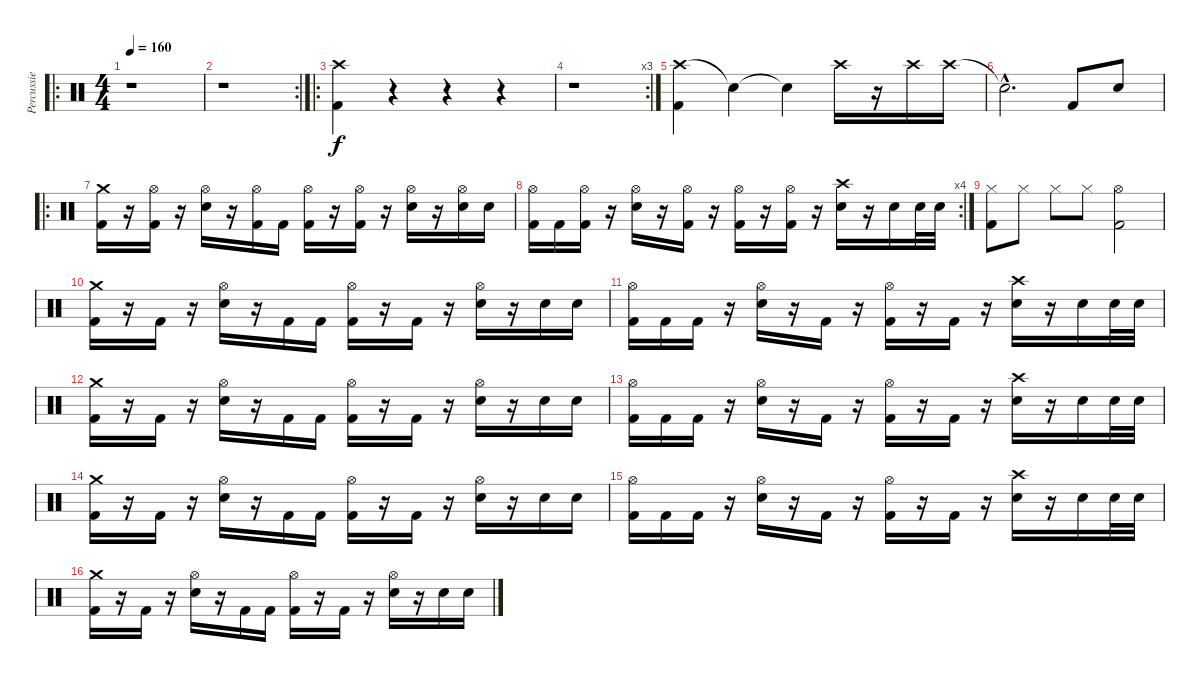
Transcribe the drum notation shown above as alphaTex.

\track ("Percussie" "Percussie") {instrument percussion}
\staff {score}
\articulation defaults
\ro
\ts (4 4)
\tempo 160
\clef neutral
\ks c
r.1{dy f} |
\rc 2
r.1 |
\ro
("Crash high (hit)" "Kick (hit) 2").4 r.4 r.4 r.4 |
\rc 3
r.1 |
("Crash high (hit)" "Kick (hit) 2").4 "Snare (hit)"{t}.4 "Snare (hit)"{t}.4 "Crash high (hit)".16 r.16 "Crash high (hit)".16 "Crash high (hit)".16 |
"Snare (hit)"{hac t}.2{d} "Kick (hit) 2".8 "Electric Snare (hit)".8 |
\ro
("Crash medium (hit)" "Kick (hit) 2").16 r.16 ("Hi-Hat (open)" "Kick (hit) 2").16 r.16 ("Hi-Hat (open)" "Electric Snare (hit)").16 r.16 ("Hi-Hat (open)" "Kick (hit) 2").16 "Kick (hit) 2".16 ("Hi-Hat (open)" "Kick (hit) 2").16 r.16 ("Hi-Hat (open)" "Kick (hit) 2").16 r.16 ("Hi-Hat (open)" "Electric Snare (hit)").16 r.16 ("Hi-Hat (open)" "Electric Snare (hit)").16 "Electric Snare (hit)".16 |
\rc 4
("Hi-Hat (open)" "Kick (hit) 2").16 "Kick (hit) 2".16 ("Hi-Hat (open)" "Kick (hit) 2").16 r.16 ("Hi-Hat (open)" "Electric Snare (hit)").16 r.16 ("Hi-Hat (open)" "Kick (hit) 2").16 r.16 ("Hi-Hat (open)" "Kick (hit) 2").16 r.16 ("Hi-Hat (open)" "Kick (hit) 2").16 r.16 ("Crash high (hit)" "Electric Snare (hit)").16 r.16 "Electric Snare (hit)".16 "Electric Snare (hit)".32 "Electric Snare (hit)".32 |
("Hi-Hat (closed)" "Kick (hit) 2").8 "Hi-Hat (closed)".8 "Hi-Hat (closed)".8 "Hi-Hat (closed)".8 ("Hi-Hat (open)" "Kick (hit) 2").2 |
("Crash medium (hit)" "Kick (hit) 2").16 r.16 "Kick (hit) 2".16 r.16 ("Hi-Hat (open)" "Electric Snare (hit)").16 r.16 "Kick (hit) 2".16 "Kick (hit) 2".16 ("Hi-Hat (open)" "Kick (hit) 2").16 r.16 "Kick (hit) 2".16 r.16 ("Hi-Hat (open)" "Electric Snare (hit)").16 r.16 "Electric Snare (hit)".16 "Electric Snare (hit)".16 |
("Hi-Hat (open)" "Kick (hit) 2").16 "Kick (hit) 2".16 "Kick (hit) 2".16 r.16 ("Hi-Hat (open)" "Electric Snare (hit)").16 r.16 "Kick (hit) 2".16 r.16 ("Hi-Hat (open)" "Kick (hit) 2").16 r.16 "Kick (hit) 2".16 r.16 ("Crash high (hit)" "Electric Snare (hit)").16 r.16 "Electric Snare (hit)".16 "Electric Snare (hit)".32 "Electric Snare (hit)".32 |
("Crash medium (hit)" "Kick (hit) 2").16 r.16 "Kick (hit) 2".16 r.16 ("Hi-Hat (open)" "Electric Snare (hit)").16 r.16 "Kick (hit) 2".16 "Kick (hit) 2".16 ("Hi-Hat (open)" "Kick (hit) 2").16 r.16 "Kick (hit) 2".16 r.16 ("Hi-Hat (open)" "Electric Snare (hit)").16 r.16 "Electric Snare (hit)".16 "Electric Snare (hit)".16 |
("Hi-Hat (open)" "Kick (hit) 2").16 "Kick (hit) 2".16 "Kick (hit) 2".16 r.16 ("Hi-Hat (open)" "Electric Snare (hit)").16 r.16 "Kick (hit) 2".16 r.16 ("Hi-Hat (open)" "Kick (hit) 2").16 r.16 "Kick (hit) 2".16 r.16 ("Crash high (hit)" "Electric Snare (hit)").16 r.16 "Electric Snare (hit)".16 "Electric Snare (hit)".32 "Electric Snare (hit)".32 |
("Crash medium (hit)" "Kick (hit) 2").16 r.16 "Kick (hit) 2".16 r.16 ("Hi-Hat (open)" "Electric Snare (hit)").16 r.16 "Kick (hit) 2".16 "Kick (hit) 2".16 ("Hi-Hat (open)" "Kick (hit) 2").16 r.16 "Kick (hit) 2".16 r.16 ("Hi-Hat (open)" "Electric Snare (hit)").16 r.16 "Electric Snare (hit)".16 "Electric Snare (hit)".16 |
("Hi-Hat (open)" "Kick (hit) 2").16 "Kick (hit) 2".16 "Kick (hit) 2".16 r.16 ("Hi-Hat (open)" "Electric Snare (hit)").16 r.16 "Kick (hit) 2".16 r.16 ("Hi-Hat (open)" "Kick (hit) 2").16 r.16 "Kick (hit) 2".16 r.16 ("Crash high (hit)" "Electric Snare (hit)").16 r.16 "Electric Snare (hit)".16 "Electric Snare (hit)".32 "Electric Snare (hit)".32 |
("Crash medium (hit)" "Kick (hit) 2").16 r.16 "Kick (hit) 2".16 r.16 ("Hi-Hat (open)" "Electric Snare (hit)").16 r.16 "Kick (hit) 2".16 "Kick (hit) 2".16 ("Hi-Hat (open)" "Kick (hit) 2").16 r.16 "Kick (hit) 2".16 r.16 ("Hi-Hat (open)" "Electric Snare (hit)").16 r.16 "Electric Snare (hit)".16 "Electric Snare (hit)".16
